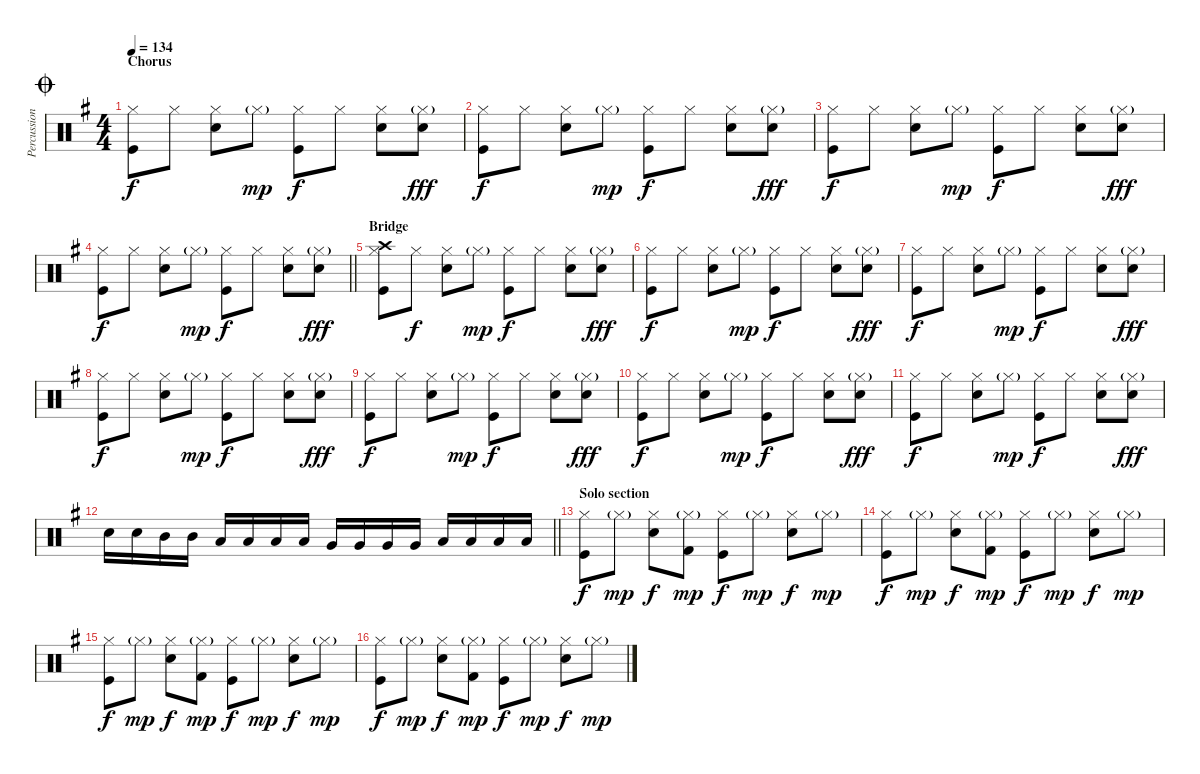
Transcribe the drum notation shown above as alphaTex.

\track ("Percussion" "Percussion") {instrument percussion}
\staff {score}
\articulation defaults
\ts (4 4)
\section ("" "Chorus")
\jump coda
\tempo 134
\clef neutral
\ks g
("Hi-Hat (closed)" "Kick (hit)").8{dy f} "Hi-Hat (closed)".8 ("Hi-Hat (closed)" "Snare (hit) 2").8 "Hi-Hat (closed)"{g}.8{dy mp} ("Hi-Hat (closed)" "Kick (hit)").8{dy f} "Hi-Hat (closed)".8 ("Hi-Hat (closed)" "Snare (hit) 2").8 ("Hi-Hat (closed)"{g} "Snare (hit) 2").8{dy fff} |
("Hi-Hat (closed)" "Kick (hit)").8{dy f} "Hi-Hat (closed)".8 ("Hi-Hat (closed)" "Snare (hit) 2").8 "Hi-Hat (closed)"{g}.8{dy mp} ("Hi-Hat (closed)" "Kick (hit)").8{dy f} "Hi-Hat (closed)".8 ("Hi-Hat (closed)" "Snare (hit) 2").8 ("Hi-Hat (closed)"{g} "Snare (hit) 2").8{dy fff} |
("Hi-Hat (closed)" "Kick (hit)").8{dy f} "Hi-Hat (closed)".8 ("Hi-Hat (closed)" "Snare (hit) 2").8 "Hi-Hat (closed)"{g}.8{dy mp} ("Hi-Hat (closed)" "Kick (hit)").8{dy f} "Hi-Hat (closed)".8 ("Hi-Hat (closed)" "Snare (hit) 2").8 ("Hi-Hat (closed)"{g} "Snare (hit) 2").8{dy fff} |
\barLineRight lightlight
("Hi-Hat (closed)" "Kick (hit)").8{dy f} "Hi-Hat (closed)".8 ("Hi-Hat (closed)" "Snare (hit) 2").8 "Hi-Hat (closed)"{g}.8{dy mp} ("Hi-Hat (closed)" "Kick (hit)").8{dy f} "Hi-Hat (closed)".8 ("Hi-Hat (closed)" "Snare (hit) 2").8 ("Hi-Hat (closed)"{g} "Snare (hit) 2").8{dy fff} |
\section ("" "Bridge")
("Hi-Hat (closed)" "Crash high (hit)" "Kick (hit)").8 "Hi-Hat (closed)".8{dy f} ("Hi-Hat (closed)" "Snare (hit) 2").8 "Hi-Hat (closed)"{g}.8{dy mp} ("Hi-Hat (closed)" "Kick (hit)").8{dy f} "Hi-Hat (closed)".8 ("Hi-Hat (closed)" "Snare (hit) 2").8 ("Hi-Hat (closed)"{g} "Snare (hit) 2").8{dy fff} |
("Hi-Hat (closed)" "Kick (hit)").8{dy f} "Hi-Hat (closed)".8 ("Hi-Hat (closed)" "Snare (hit) 2").8 "Hi-Hat (closed)"{g}.8{dy mp} ("Hi-Hat (closed)" "Kick (hit)").8{dy f} "Hi-Hat (closed)".8 ("Hi-Hat (closed)" "Snare (hit) 2").8 ("Hi-Hat (closed)"{g} "Snare (hit) 2").8{dy fff} |
("Hi-Hat (closed)" "Kick (hit)").8{dy f} "Hi-Hat (closed)".8 ("Hi-Hat (closed)" "Snare (hit) 2").8 "Hi-Hat (closed)"{g}.8{dy mp} ("Hi-Hat (closed)" "Kick (hit)").8{dy f} "Hi-Hat (closed)".8 ("Hi-Hat (closed)" "Snare (hit) 2").8 ("Hi-Hat (closed)"{g} "Snare (hit) 2").8{dy fff} |
("Hi-Hat (closed)" "Kick (hit)").8{dy f} "Hi-Hat (closed)".8 ("Hi-Hat (closed)" "Snare (hit) 2").8 "Hi-Hat (closed)"{g}.8{dy mp} ("Hi-Hat (closed)" "Kick (hit)").8{dy f} "Hi-Hat (closed)".8 ("Hi-Hat (closed)" "Snare (hit) 2").8 ("Hi-Hat (closed)"{g} "Snare (hit) 2").8{dy fff} |
("Hi-Hat (closed)" "Kick (hit)").8{dy f} "Hi-Hat (closed)".8 ("Hi-Hat (closed)" "Snare (hit) 2").8 "Hi-Hat (closed)"{g}.8{dy mp} ("Hi-Hat (closed)" "Kick (hit)").8{dy f} "Hi-Hat (closed)".8 ("Hi-Hat (closed)" "Snare (hit) 2").8 ("Hi-Hat (closed)"{g} "Snare (hit) 2").8{dy fff} |
("Hi-Hat (closed)" "Kick (hit)").8{dy f} "Hi-Hat (closed)".8 ("Hi-Hat (closed)" "Snare (hit) 2").8 "Hi-Hat (closed)"{g}.8{dy mp} ("Hi-Hat (closed)" "Kick (hit)").8{dy f} "Hi-Hat (closed)".8 ("Hi-Hat (closed)" "Snare (hit) 2").8 ("Hi-Hat (closed)"{g} "Snare (hit) 2").8{dy fff} |
("Hi-Hat (closed)" "Kick (hit)").8{dy f} "Hi-Hat (closed)".8 ("Hi-Hat (closed)" "Snare (hit) 2").8 "Hi-Hat (closed)"{g}.8{dy mp} ("Hi-Hat (closed)" "Kick (hit)").8{dy f} "Hi-Hat (closed)".8 ("Hi-Hat (closed)" "Snare (hit) 2").8 ("Hi-Hat (closed)"{g} "Snare (hit) 2").8{dy fff} |
\barLineRight lightlight "Snare (hit) 2".16 "Snare (hit) 2".16 "Mid Tom (hit)".16 "Mid Tom (hit)".16 "Low Tom (hit)".16 "Low Tom (hit)".16 "Low Tom (hit)".16 "Low Tom (hit)".16 "Very Low Tom (hit)".16 "Very Low Tom (hit)".16 "Very Low Tom (hit)".16 "Very Low Tom (hit)".16 "Low Floor Tom (hit)".16 "Low Floor Tom (hit)".16 "Low Floor Tom (hit)".16 "Low Floor Tom (hit)".16
|
\section ("" "Solo section")
("Hi-Hat (closed)" "Kick (hit)").8{dy f} "Hi-Hat (closed)"{g}.8{dy mp} ("Hi-Hat (closed)" "Snare (hit) 2").8{dy f} ("Hi-Hat (closed)"{g} "Kick (hit) 2").8{dy mp} ("Hi-Hat (closed)" "Kick (hit)").8{dy f} "Hi-Hat (closed)"{g}.8{dy mp} ("Hi-Hat (closed)" "Snare (hit) 2").8{dy f} "Hi-Hat (closed)"{g}.8{dy mp} |
("Hi-Hat (closed)" "Kick (hit)").8{dy f} "Hi-Hat (closed)"{g}.8{dy mp} ("Hi-Hat (closed)" "Snare (hit) 2").8{dy f} ("Hi-Hat (closed)"{g} "Kick (hit) 2").8{dy mp} ("Hi-Hat (closed)" "Kick (hit)").8{dy f} "Hi-Hat (closed)"{g}.8{dy mp} ("Hi-Hat (closed)" "Snare (hit) 2").8{dy f} "Hi-Hat (closed)"{g}.8{dy mp} |
("Hi-Hat (closed)" "Kick (hit)").8{dy f} "Hi-Hat (closed)"{g}.8{dy mp} ("Hi-Hat (closed)" "Snare (hit) 2").8{dy f} ("Hi-Hat (closed)"{g} "Kick (hit) 2").8{dy mp} ("Hi-Hat (closed)" "Kick (hit)").8{dy f} "Hi-Hat (closed)"{g}.8{dy mp} ("Hi-Hat (closed)" "Snare (hit) 2").8{dy f} "Hi-Hat (closed)"{g}.8{dy mp} |
("Hi-Hat (closed)" "Kick (hit)").8{dy f} "Hi-Hat (closed)"{g}.8{dy mp} ("Hi-Hat (closed)" "Snare (hit) 2").8{dy f} ("Hi-Hat (closed)"{g} "Kick (hit) 2").8{dy mp} ("Hi-Hat (closed)" "Kick (hit)").8{dy f} "Hi-Hat (closed)"{g}.8{dy mp} ("Hi-Hat (closed)" "Snare (hit) 2").8{dy f} "Hi-Hat (closed)"{g}.8{dy mp}
